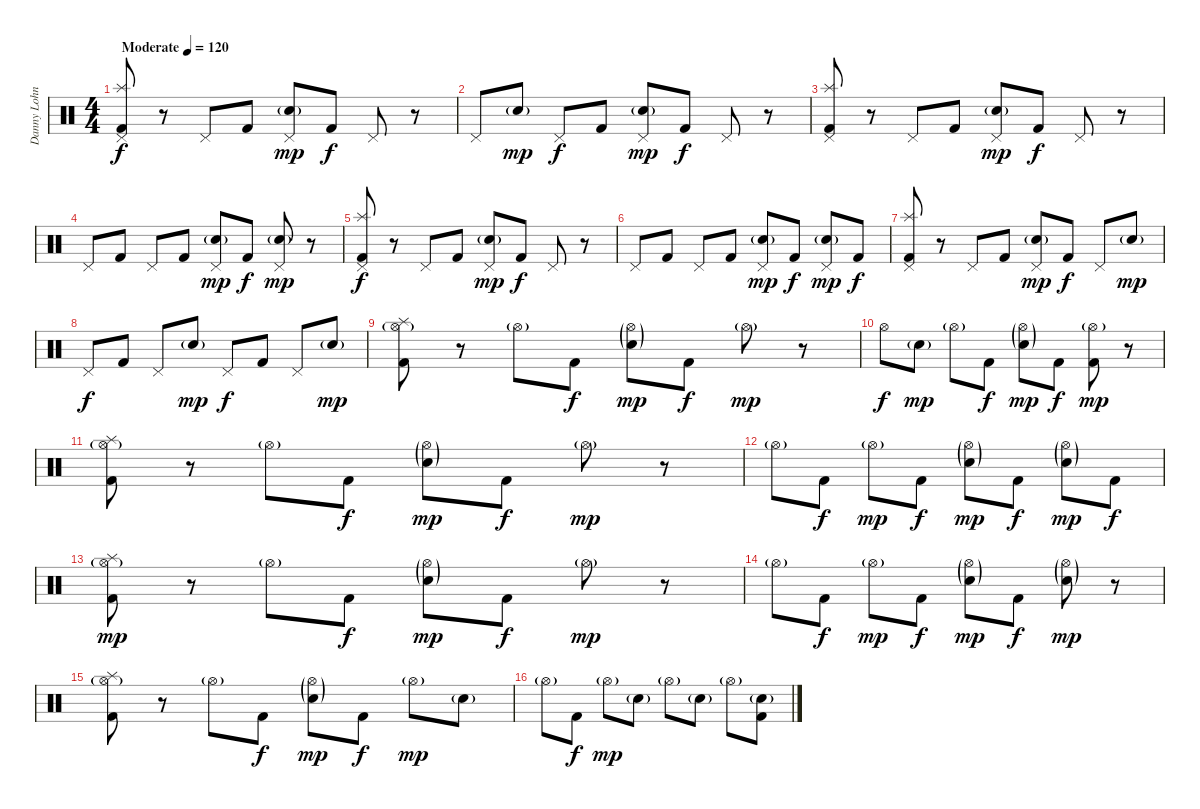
\track ("Danny Lohner" "Danny Lohn") {instrument percussion}
\staff {score}
\articulation defaults
\ts (4 4)
\tempo (120 "Moderate")
\clef neutral
\ks c
("Pedal Hi-Hat (hit)" "Splash (hit)" "Kick (hit) 2").8{dy f} r.8 "Pedal Hi-Hat (hit)".8 "Kick (hit) 2".8 ("Pedal Hi-Hat (hit)" "Electric Snare (hit)"{g}).8{dy mp} "Kick (hit) 2".8{dy f} "Pedal Hi-Hat (hit)".8 r.8 |
"Pedal Hi-Hat (hit)".8 "Electric Snare (hit)"{g}.8{dy mp} "Pedal Hi-Hat (hit)".8{dy f} "Kick (hit) 2".8 ("Pedal Hi-Hat (hit)" "Electric Snare (hit)"{g}).8{dy mp} "Kick (hit) 2".8{dy f} "Pedal Hi-Hat (hit)".8 r.8 |
("Pedal Hi-Hat (hit)" "Splash (hit)" "Kick (hit) 2").8 r.8 "Pedal Hi-Hat (hit)".8 "Kick (hit) 2".8 ("Pedal Hi-Hat (hit)" "Electric Snare (hit)"{g}).8{dy mp} "Kick (hit) 2".8{dy f} "Pedal Hi-Hat (hit)".8 r.8 |
"Pedal Hi-Hat (hit)".8 "Kick (hit) 2".8 "Pedal Hi-Hat (hit)".8 "Kick (hit) 2".8 ("Pedal Hi-Hat (hit)" "Electric Snare (hit)"{g}).8{dy mp} "Kick (hit) 2".8{dy f} ("Pedal Hi-Hat (hit)" "Electric Snare (hit)"{g}).8{dy mp} r.8 |
("Pedal Hi-Hat (hit)" "Splash (hit)" "Kick (hit) 2").8{dy f} r.8 "Pedal Hi-Hat (hit)".8 "Kick (hit) 2".8 ("Pedal Hi-Hat (hit)" "Electric Snare (hit)"{g}).8{dy mp} "Kick (hit) 2".8{dy f} "Pedal Hi-Hat (hit)".8 r.8 |
"Pedal Hi-Hat (hit)".8 "Kick (hit) 2".8 "Pedal Hi-Hat (hit)".8 "Kick (hit) 2".8 ("Pedal Hi-Hat (hit)" "Electric Snare (hit)"{g}).8{dy mp} "Kick (hit) 2".8{dy f} ("Pedal Hi-Hat (hit)" "Electric Snare (hit)"{g}).8{dy mp} "Kick (hit) 2".8{dy f} |
("Pedal Hi-Hat (hit)" "Splash (hit)" "Kick (hit) 2").8 r.8 "Pedal Hi-Hat (hit)".8 "Kick (hit) 2".8 ("Pedal Hi-Hat (hit)" "Electric Snare (hit)"{g}).8{dy mp} "Kick (hit) 2".8{dy f} "Pedal Hi-Hat (hit)".8 "Electric Snare (hit)"{g}.8{dy mp} |
"Pedal Hi-Hat (hit)".8{dy f} "Kick (hit) 2".8 "Pedal Hi-Hat (hit)".8 "Electric Snare (hit)"{g}.8{dy mp} "Pedal Hi-Hat (hit)".8{dy f} "Kick (hit) 2".8 "Pedal Hi-Hat (hit)".8 "Electric Snare (hit)"{g}.8{dy mp} |
("Hi-Hat (open)"{g} "Splash (hit)" "Kick (hit) 2").8 r.8 "Hi-Hat (open)"{g}.8 "Kick (hit) 2".8{dy f} ("Hi-Hat (open)"{g} "Electric Snare (hit)"{g}).8{dy mp} "Kick (hit) 2".8{dy f} "Hi-Hat (open)"{g}.8{dy mp} r.8 |
"Hi-Hat (open)".8{dy f} "Electric Snare (hit)"{g}.8{dy mp} "Hi-Hat (open)"{g}.8 "Kick (hit) 2".8{dy f} ("Hi-Hat (open)"{g} "Electric Snare (hit)"{g}).8{dy mp} "Kick (hit) 2".8{dy f} ("Hi-Hat (open)"{g} "Kick (hit) 2").8{dy mp} r.8 |
("Hi-Hat (open)"{g} "Splash (hit)" "Kick (hit) 2").8 r.8 "Hi-Hat (open)"{g}.8 "Kick (hit) 2".8{dy f} ("Hi-Hat (open)"{g} "Electric Snare (hit)"{g}).8{dy mp} "Kick (hit) 2".8{dy f} "Hi-Hat (open)"{g}.8{dy mp} r.8 |
"Hi-Hat (open)"{g}.8 "Kick (hit) 2".8{dy f} "Hi-Hat (open)"{g}.8{dy mp} "Kick (hit) 2".8{dy f} ("Hi-Hat (open)"{g} "Electric Snare (hit)"{g}).8{dy mp} "Kick (hit) 2".8{dy f} ("Hi-Hat (open)"{g} "Electric Snare (hit)"{g}).8{dy mp} "Kick (hit) 2".8{dy f} |
("Hi-Hat (open)"{g} "Splash (hit)" "Kick (hit) 2").8{dy mp} r.8 "Hi-Hat (open)"{g}.8 "Kick (hit) 2".8{dy f} ("Hi-Hat (open)"{g} "Electric Snare (hit)"{g}).8{dy mp} "Kick (hit) 2".8{dy f} "Hi-Hat (open)"{g}.8{dy mp} r.8 |
"Hi-Hat (open)"{g}.8 "Kick (hit) 2".8{dy f} "Hi-Hat (open)"{g}.8{dy mp} "Kick (hit) 2".8{dy f} ("Hi-Hat (open)"{g} "Electric Snare (hit)"{g}).8{dy mp} "Kick (hit) 2".8{dy f} ("Hi-Hat (open)"{g} "Electric Snare (hit)"{g}).8{dy mp} r.8 |
("Hi-Hat (open)"{g} "Splash (hit)" "Kick (hit) 2").8 r.8 "Hi-Hat (open)"{g}.8 "Kick (hit) 2".8{dy f} ("Hi-Hat (open)"{g} "Electric Snare (hit)"{g}).8{dy mp} "Kick (hit) 2".8{dy f} "Hi-Hat (open)"{g}.8{dy mp} "Electric Snare (hit)"{g}.8 |
"Hi-Hat (open)"{g}.8 "Kick (hit) 2".8{dy f} "Hi-Hat (open)"{g}.8{dy mp} "Electric Snare (hit)"{g}.8 "Hi-Hat (open)"{g}.8 "Electric Snare (hit)"{g}.8 "Hi-Hat (open)"{g}.8 ("Electric Snare (hit)"{g} "Kick (hit) 2").8
